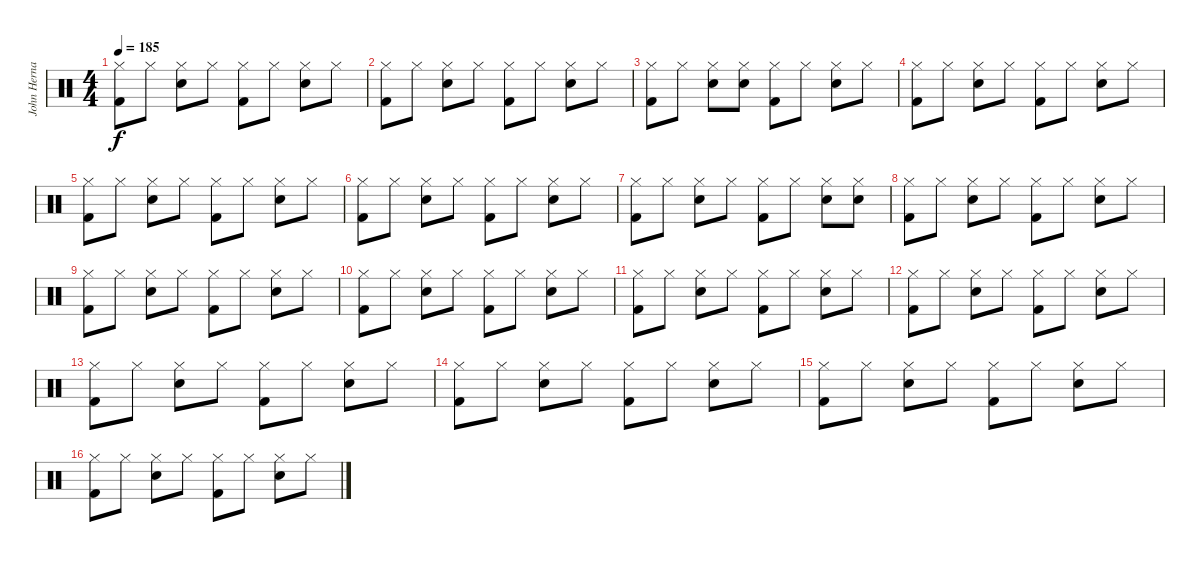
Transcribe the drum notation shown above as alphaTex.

\track ("John Hernandez" "John Herna") {instrument percussion}
\staff {score}
\articulation defaults
\ts (4 4)
\tempo 185
\clef neutral
\ks c
("Hi-Hat (closed)" "Kick (hit) 2").8{dy f} "Hi-Hat (closed)".8 ("Hi-Hat (closed)" "Snare (hit) 2").8 "Hi-Hat (closed)".8 ("Hi-Hat (closed)" "Kick (hit) 2").8 "Hi-Hat (closed)".8 ("Hi-Hat (closed)" "Snare (hit) 2").8 "Hi-Hat (closed)".8 |
("Hi-Hat (closed)" "Kick (hit) 2").8 "Hi-Hat (closed)".8 ("Hi-Hat (closed)" "Snare (hit) 2").8 "Hi-Hat (closed)".8 ("Hi-Hat (closed)" "Kick (hit) 2").8 "Hi-Hat (closed)".8 ("Hi-Hat (closed)" "Snare (hit) 2").8 "Hi-Hat (closed)".8 |
("Hi-Hat (closed)" "Kick (hit) 2").8 "Hi-Hat (closed)".8 ("Hi-Hat (closed)" "Snare (hit) 2").8 ("Hi-Hat (closed)" "Snare (hit) 2").8 ("Hi-Hat (closed)" "Kick (hit) 2").8 "Hi-Hat (closed)".8 ("Hi-Hat (closed)" "Snare (hit) 2").8 "Hi-Hat (closed)".8 |
("Hi-Hat (closed)" "Kick (hit) 2").8 "Hi-Hat (closed)".8 ("Hi-Hat (closed)" "Snare (hit) 2").8 "Hi-Hat (closed)".8 ("Hi-Hat (closed)" "Kick (hit) 2").8 "Hi-Hat (closed)".8 ("Hi-Hat (closed)" "Snare (hit) 2").8 "Hi-Hat (closed)".8 |
("Hi-Hat (closed)" "Kick (hit) 2").8 "Hi-Hat (closed)".8 ("Hi-Hat (closed)" "Snare (hit) 2").8 "Hi-Hat (closed)".8 ("Hi-Hat (closed)" "Kick (hit) 2").8 "Hi-Hat (closed)".8 ("Hi-Hat (closed)" "Snare (hit) 2").8 "Hi-Hat (closed)".8 |
("Hi-Hat (closed)" "Kick (hit) 2").8 "Hi-Hat (closed)".8 ("Hi-Hat (closed)" "Snare (hit) 2").8 "Hi-Hat (closed)".8 ("Hi-Hat (closed)" "Kick (hit) 2").8 "Hi-Hat (closed)".8 ("Hi-Hat (closed)" "Snare (hit) 2").8 "Hi-Hat (closed)".8 |
("Hi-Hat (closed)" "Kick (hit) 2").8 "Hi-Hat (closed)".8 ("Hi-Hat (closed)" "Snare (hit) 2").8 "Hi-Hat (closed)".8 ("Hi-Hat (closed)" "Kick (hit) 2").8 "Hi-Hat (closed)".8 ("Hi-Hat (closed)" "Snare (hit) 2").8 ("Hi-Hat (closed)" "Snare (hit) 2").8 |
("Hi-Hat (closed)" "Kick (hit) 2").8 "Hi-Hat (closed)".8 ("Hi-Hat (closed)" "Snare (hit) 2").8 "Hi-Hat (closed)".8 ("Hi-Hat (closed)" "Kick (hit) 2").8 "Hi-Hat (closed)".8 ("Hi-Hat (closed)" "Snare (hit) 2").8 "Hi-Hat (closed)".8 |
("Hi-Hat (closed)" "Kick (hit) 2").8 "Hi-Hat (closed)".8 ("Hi-Hat (closed)" "Snare (hit) 2").8 "Hi-Hat (closed)".8 ("Hi-Hat (closed)" "Kick (hit) 2").8 "Hi-Hat (closed)".8 ("Hi-Hat (closed)" "Snare (hit) 2").8 "Hi-Hat (closed)".8 |
("Hi-Hat (closed)" "Kick (hit) 2").8 "Hi-Hat (closed)".8 ("Hi-Hat (closed)" "Snare (hit) 2").8 "Hi-Hat (closed)".8 ("Hi-Hat (closed)" "Kick (hit) 2").8 "Hi-Hat (closed)".8 ("Hi-Hat (closed)" "Snare (hit) 2").8 "Hi-Hat (closed)".8 |
("Hi-Hat (closed)" "Kick (hit) 2").8 "Hi-Hat (closed)".8 ("Hi-Hat (closed)" "Snare (hit) 2").8 "Hi-Hat (closed)".8 ("Hi-Hat (closed)" "Kick (hit) 2").8 "Hi-Hat (closed)".8 ("Hi-Hat (closed)" "Snare (hit) 2").8 "Hi-Hat (closed)".8 |
("Hi-Hat (closed)" "Kick (hit) 2").8 "Hi-Hat (closed)".8 ("Hi-Hat (closed)" "Snare (hit) 2").8 "Hi-Hat (closed)".8 ("Hi-Hat (closed)" "Kick (hit) 2").8 "Hi-Hat (closed)".8 ("Hi-Hat (closed)" "Snare (hit) 2").8 "Hi-Hat (closed)".8 |
("Hi-Hat (closed)" "Kick (hit) 2").8 "Hi-Hat (closed)".8 ("Hi-Hat (closed)" "Snare (hit) 2").8 "Hi-Hat (closed)".8 ("Hi-Hat (closed)" "Kick (hit) 2").8 "Hi-Hat (closed)".8 ("Hi-Hat (closed)" "Snare (hit) 2").8 "Hi-Hat (closed)".8 |
("Hi-Hat (closed)" "Kick (hit) 2").8 "Hi-Hat (closed)".8 ("Hi-Hat (closed)" "Snare (hit) 2").8 "Hi-Hat (closed)".8 ("Hi-Hat (closed)" "Kick (hit) 2").8 "Hi-Hat (closed)".8 ("Hi-Hat (closed)" "Snare (hit) 2").8 "Hi-Hat (closed)".8 |
("Hi-Hat (closed)" "Kick (hit) 2").8 "Hi-Hat (closed)".8 ("Hi-Hat (closed)" "Snare (hit) 2").8 "Hi-Hat (closed)".8 ("Hi-Hat (closed)" "Kick (hit) 2").8 "Hi-Hat (closed)".8 ("Hi-Hat (closed)" "Snare (hit) 2").8 "Hi-Hat (closed)".8 |
("Hi-Hat (closed)" "Kick (hit) 2").8 "Hi-Hat (closed)".8 ("Hi-Hat (closed)" "Snare (hit) 2").8 "Hi-Hat (closed)".8 ("Hi-Hat (closed)" "Kick (hit) 2").8 "Hi-Hat (closed)".8 ("Hi-Hat (closed)" "Snare (hit) 2").8 "Hi-Hat (closed)".8
